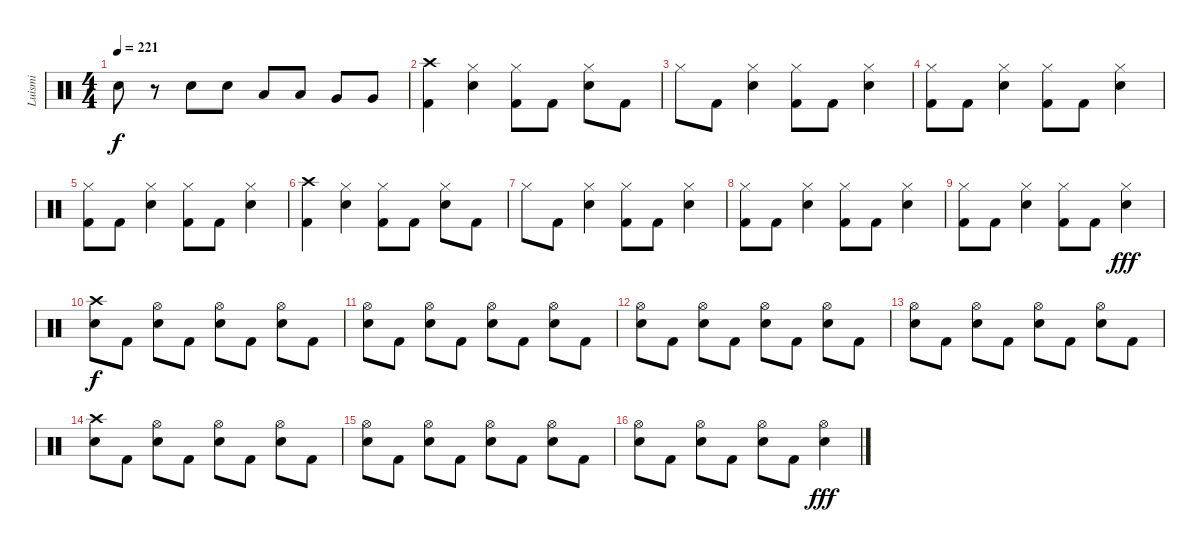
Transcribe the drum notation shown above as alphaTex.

\track ("Luismi" "Luismi") {instrument percussion}
\staff {score}
\articulation defaults
\ts (4 4)
\tempo 221
\clef neutral
\ks c "Snare (hit) 2".8{dy f}
r.8 "Snare (hit) 2".8 "Snare (hit) 2".8 "Low Tom (hit)".8 "Low Tom (hit)".8 "Very Low Tom (hit)".8 "Very Low Tom (hit)".8 |
("Crash high (hit)" "Kick (hit) 2").4 ("Hi-Hat (closed)" "Snare (hit) 2").4 ("Hi-Hat (closed)" "Kick (hit) 2").8 "Kick (hit) 2".8 ("Hi-Hat (closed)" "Snare (hit) 2").8 "Kick (hit) 2".8 |
"Hi-Hat (closed)".8 "Kick (hit) 2".8 ("Hi-Hat (closed)" "Snare (hit) 2").4 ("Hi-Hat (closed)" "Kick (hit) 2").8 "Kick (hit) 2".8 ("Hi-Hat (closed)" "Snare (hit) 2").4 |
("Hi-Hat (closed)" "Kick (hit) 2").8 "Kick (hit) 2".8 ("Hi-Hat (closed)" "Snare (hit) 2").4 ("Hi-Hat (closed)" "Kick (hit) 2").8 "Kick (hit) 2".8 ("Hi-Hat (closed)" "Snare (hit) 2").4 |
("Hi-Hat (closed)" "Kick (hit) 2").8 "Kick (hit) 2".8 ("Hi-Hat (closed)" "Snare (hit) 2").4 ("Hi-Hat (closed)" "Kick (hit) 2").8 "Kick (hit) 2".8 ("Hi-Hat (closed)" "Snare (hit) 2").4 |
("Crash high (hit)" "Kick (hit) 2").4 ("Hi-Hat (closed)" "Snare (hit) 2").4 ("Hi-Hat (closed)" "Kick (hit) 2").8 "Kick (hit) 2".8 ("Hi-Hat (closed)" "Snare (hit) 2").8 "Kick (hit) 2".8 |
"Hi-Hat (closed)".8 "Kick (hit) 2".8 ("Hi-Hat (closed)" "Snare (hit) 2").4 ("Hi-Hat (closed)" "Kick (hit) 2").8 "Kick (hit) 2".8 ("Hi-Hat (closed)" "Snare (hit) 2").4 |
("Hi-Hat (closed)" "Kick (hit) 2").8 "Kick (hit) 2".8 ("Hi-Hat (closed)" "Snare (hit) 2").4 ("Hi-Hat (closed)" "Kick (hit) 2").8 "Kick (hit) 2".8 ("Hi-Hat (closed)" "Snare (hit) 2").4 |
("Hi-Hat (closed)" "Kick (hit) 2").8 "Kick (hit) 2".8 ("Hi-Hat (closed)" "Snare (hit) 2").4 ("Hi-Hat (closed)" "Kick (hit) 2").8 "Kick (hit) 2".8 ("Hi-Hat (closed)" "Snare (hit) 2").4{dy fff} |
("Crash high (hit)" "Snare (hit) 2").8{dy f} "Kick (hit) 2".8 ("Hi-Hat (open)" "Snare (hit) 2").8 "Kick (hit) 2".8 ("Hi-Hat (open)" "Snare (hit) 2").8 "Kick (hit) 2".8 ("Hi-Hat (open)" "Snare (hit) 2").8 "Kick (hit) 2".8 |
("Hi-Hat (open)" "Snare (hit) 2").8 "Kick (hit) 2".8 ("Hi-Hat (open)" "Snare (hit) 2").8 "Kick (hit) 2".8 ("Hi-Hat (open)" "Snare (hit) 2").8 "Kick (hit) 2".8 ("Hi-Hat (open)" "Snare (hit) 2").8 "Kick (hit) 2".8 |
("Hi-Hat (open)" "Snare (hit) 2").8 "Kick (hit) 2".8 ("Hi-Hat (open)" "Snare (hit) 2").8 "Kick (hit) 2".8 ("Hi-Hat (open)" "Snare (hit) 2").8 "Kick (hit) 2".8 ("Hi-Hat (open)" "Snare (hit) 2").8 "Kick (hit) 2".8 |
("Hi-Hat (open)" "Snare (hit) 2").8 "Kick (hit) 2".8 ("Hi-Hat (open)" "Snare (hit) 2").8 "Kick (hit) 2".8 ("Hi-Hat (open)" "Snare (hit) 2").8 "Kick (hit) 2".8 ("Hi-Hat (open)" "Snare (hit) 2").8 "Kick (hit) 2".8 |
("Crash high (hit)" "Snare (hit) 2").8 "Kick (hit) 2".8 ("Hi-Hat (open)" "Snare (hit) 2").8 "Kick (hit) 2".8 ("Hi-Hat (open)" "Snare (hit) 2").8 "Kick (hit) 2".8 ("Hi-Hat (open)" "Snare (hit) 2").8 "Kick (hit) 2".8 |
("Hi-Hat (open)" "Snare (hit) 2").8 "Kick (hit) 2".8 ("Hi-Hat (open)" "Snare (hit) 2").8 "Kick (hit) 2".8 ("Hi-Hat (open)" "Snare (hit) 2").8 "Kick (hit) 2".8 ("Hi-Hat (open)" "Snare (hit) 2").8 "Kick (hit) 2".8 |
("Hi-Hat (open)" "Snare (hit) 2").8 "Kick (hit) 2".8 ("Hi-Hat (open)" "Snare (hit) 2").8 "Kick (hit) 2".8 ("Hi-Hat (open)" "Snare (hit) 2").8 "Kick (hit) 2".8 ("Hi-Hat (open)" "Snare (hit) 2").4{dy fff}
